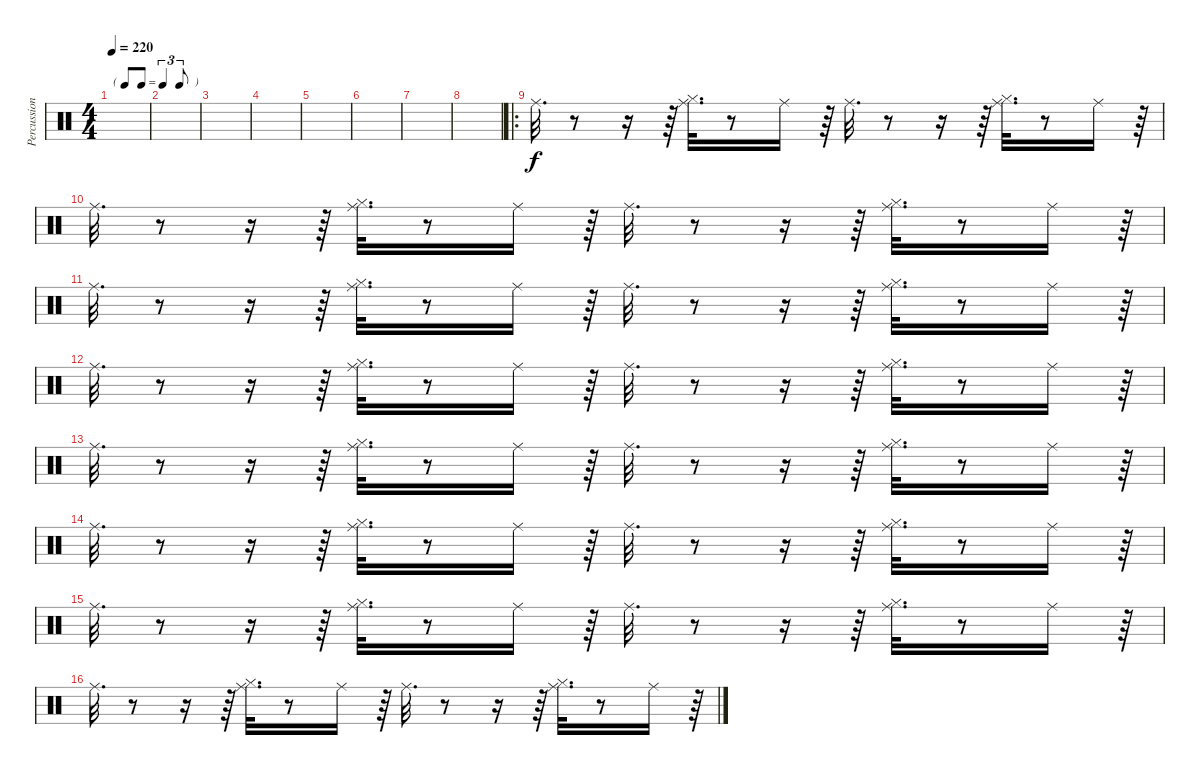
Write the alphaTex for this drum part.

\track ("Percussions" "Percussion") {instrument percussion}
\staff {score}
\articulation defaults
\ts (4 4)
\tf triplet8th
\tempo 220
\clef neutral
\ks c
|
|
|
|
|
|
|
|
\ro "Ride (middle)".32{d}
r.8 r.16 r.64 ("Hi-Hat (closed)" "Ride (middle)").32{d} r.8 "Ride (middle)".16 r.64 "Ride (middle)".32{d} r.8 r.16 r.64 ("Hi-Hat (closed)" "Ride (middle)").32{d} r.8 "Ride (middle)".16 r.64 |
"Ride (middle)".32{d} r.8 r.16 r.64 ("Hi-Hat (closed)" "Ride (middle)").32{d} r.8 "Ride (middle)".16 r.64 "Ride (middle)".32{d} r.8 r.16 r.64 ("Hi-Hat (closed)" "Ride (middle)").32{d} r.8 "Ride (middle)".16 r.64 |
"Ride (middle)".32{d} r.8 r.16 r.64 ("Hi-Hat (closed)" "Ride (middle)").32{d} r.8 "Ride (middle)".16 r.64 "Ride (middle)".32{d} r.8 r.16 r.64 ("Hi-Hat (closed)" "Ride (middle)").32{d} r.8 "Ride (middle)".16 r.64 |
"Ride (middle)".32{d} r.8 r.16 r.64 ("Hi-Hat (closed)" "Ride (middle)").32{d} r.8 "Ride (middle)".16 r.64 "Ride (middle)".32{d} r.8 r.16 r.64 ("Hi-Hat (closed)" "Ride (middle)").32{d} r.8 "Ride (middle)".16 r.64 |
"Ride (middle)".32{d} r.8 r.16 r.64 ("Hi-Hat (closed)" "Ride (middle)").32{d} r.8 "Ride (middle)".16 r.64 "Ride (middle)".32{d} r.8 r.16 r.64 ("Hi-Hat (closed)" "Ride (middle)").32{d} r.8 "Ride (middle)".16 r.64 |
"Ride (middle)".32{d} r.8 r.16 r.64 ("Hi-Hat (closed)" "Ride (middle)").32{d} r.8 "Ride (middle)".16 r.64 "Ride (middle)".32{d} r.8 r.16 r.64 ("Hi-Hat (closed)" "Ride (middle)").32{d} r.8 "Ride (middle)".16 r.64 |
"Ride (middle)".32{d} r.8 r.16 r.64 ("Hi-Hat (closed)" "Ride (middle)").32{d} r.8 "Ride (middle)".16 r.64 "Ride (middle)".32{d} r.8 r.16 r.64 ("Hi-Hat (closed)" "Ride (middle)").32{d} r.8 "Ride (middle)".16 r.64 |
"Ride (middle)".32{d} r.8 r.16 r.64 ("Hi-Hat (closed)" "Ride (middle)").32{d} r.8 "Ride (middle)".16 r.64 "Ride (middle)".32{d} r.8 r.16 r.64 ("Hi-Hat (closed)" "Ride (middle)").32{d} r.8 "Ride (middle)".16 r.64
